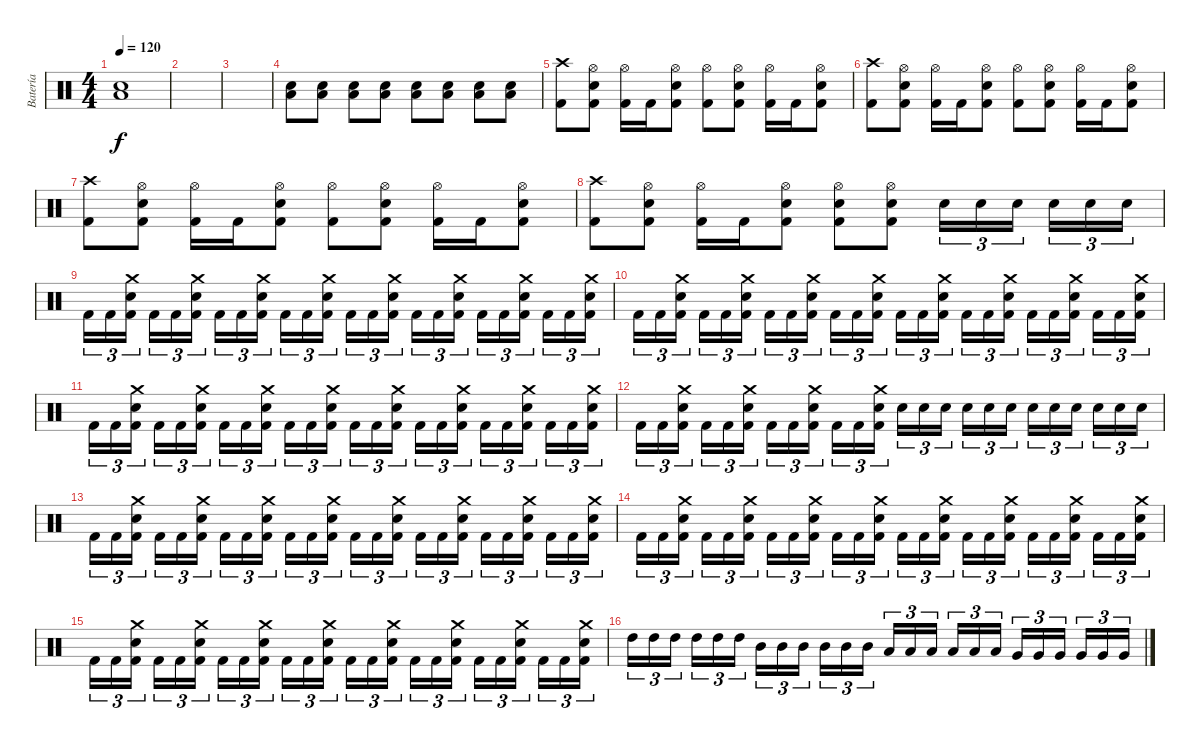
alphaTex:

\track ("Batería" "Batería") {instrument percussion}
\staff {score}
\articulation defaults
\ts (4 4)
\tempo 120
\clef neutral
\ks c
("Low Tom (hit)" "Snare (hit) 2").1{dy f} |
|
|
("Low Tom (hit)" "Snare (hit) 2").8 ("Low Tom (hit)" "Snare (hit) 2").8 ("Low Tom (hit)" "Snare (hit) 2").8 ("Low Tom (hit)" "Snare (hit) 2").8 ("Low Tom (hit)" "Snare (hit) 2").8 ("Low Tom (hit)" "Snare (hit) 2").8 ("Low Tom (hit)" "Snare (hit) 2").8 ("Low Tom (hit)" "Snare (hit) 2").8 |
("Crash high (hit)" "Kick (hit) 2").8 ("Hi-Hat (open)" "Kick (hit) 2" "Snare (hit) 2").8 ("Hi-Hat (open)" "Kick (hit) 2").16 "Kick (hit) 2".16 ("Hi-Hat (open)" "Kick (hit) 2" "Snare (hit) 2").8 ("Hi-Hat (open)" "Kick (hit) 2").8 ("Hi-Hat (open)" "Kick (hit) 2" "Snare (hit) 2").8 ("Hi-Hat (open)" "Kick (hit) 2").16 "Kick (hit) 2".16 ("Hi-Hat (open)" "Kick (hit) 2" "Snare (hit) 2").8 |
("Crash high (hit)" "Kick (hit) 2").8 ("Hi-Hat (open)" "Kick (hit) 2" "Snare (hit) 2").8 ("Hi-Hat (open)" "Kick (hit) 2").16 "Kick (hit) 2".16 ("Hi-Hat (open)" "Kick (hit) 2" "Snare (hit) 2").8 ("Hi-Hat (open)" "Kick (hit) 2").8 ("Hi-Hat (open)" "Kick (hit) 2" "Snare (hit) 2").8 ("Hi-Hat (open)" "Kick (hit) 2").16 "Kick (hit) 2".16 ("Hi-Hat (open)" "Kick (hit) 2" "Snare (hit) 2").8 |
("Crash high (hit)" "Kick (hit) 2").8 ("Hi-Hat (open)" "Kick (hit) 2" "Snare (hit) 2").8 ("Hi-Hat (open)" "Kick (hit) 2").16 "Kick (hit) 2".16 ("Hi-Hat (open)" "Kick (hit) 2" "Snare (hit) 2").8 ("Hi-Hat (open)" "Kick (hit) 2").8 ("Hi-Hat (open)" "Kick (hit) 2" "Snare (hit) 2").8 ("Hi-Hat (open)" "Kick (hit) 2").16 "Kick (hit) 2".16 ("Hi-Hat (open)" "Kick (hit) 2" "Snare (hit) 2").8 |
("Crash high (hit)" "Kick (hit) 2").8 ("Hi-Hat (open)" "Kick (hit) 2" "Snare (hit) 2").8 ("Hi-Hat (open)" "Kick (hit) 2").16 "Kick (hit) 2".16 ("Hi-Hat (open)" "Kick (hit) 2" "Snare (hit) 2").8 ("Hi-Hat (open)" "Kick (hit) 2" "Snare (hit) 2").8 ("Hi-Hat (open)" "Kick (hit) 2" "Snare (hit) 2").8 "Snare (hit) 2".16{tu (3 2)} "Snare (hit) 2".16{tu (3 2)} "Snare (hit) 2".16{tu (3 2)} "Snare (hit) 2".16{tu (3 2)} "Snare (hit) 2".16{tu (3 2)} "Snare (hit) 2".16{tu (3 2)} |
"Kick (hit) 2".16{tu (3 2)} "Kick (hit) 2".16{tu (3 2)} ("Kick (hit) 2" "Crash medium (hit)" "Snare (hit) 2").16{tu (3 2)} "Kick (hit) 2".16{tu (3 2)} "Kick (hit) 2".16{tu (3 2)} ("Kick (hit) 2" "Crash medium (hit)" "Snare (hit) 2").16{tu (3 2)} "Kick (hit) 2".16{tu (3 2)} "Kick (hit) 2".16{tu (3 2)} ("Kick (hit) 2" "Crash medium (hit)" "Snare (hit) 2").16{tu (3 2)} "Kick (hit) 2".16{tu (3 2)} "Kick (hit) 2".16{tu (3 2)} ("Kick (hit) 2" "Crash medium (hit)" "Snare (hit) 2").16{tu (3 2)} "Kick (hit) 2".16{tu (3 2)} "Kick (hit) 2".16{tu (3 2)} ("Kick (hit) 2" "Crash medium (hit)" "Snare (hit) 2").16{tu (3 2)} "Kick (hit) 2".16{tu (3 2)} "Kick (hit) 2".16{tu (3 2)} ("Kick (hit) 2" "Crash medium (hit)" "Snare (hit) 2").16{tu (3 2)} "Kick (hit) 2".16{tu (3 2)} "Kick (hit) 2".16{tu (3 2)} ("Kick (hit) 2" "Crash medium (hit)" "Snare (hit) 2").16{tu (3 2)} "Kick (hit) 2".16{tu (3 2)} "Kick (hit) 2".16{tu (3 2)} ("Kick (hit) 2" "Crash medium (hit)" "Snare (hit) 2").16{tu (3 2)} |
"Kick (hit) 2".16{tu (3 2)} "Kick (hit) 2".16{tu (3 2)} ("Kick (hit) 2" "Crash medium (hit)" "Snare (hit) 2").16{tu (3 2)} "Kick (hit) 2".16{tu (3 2)} "Kick (hit) 2".16{tu (3 2)} ("Kick (hit) 2" "Crash medium (hit)" "Snare (hit) 2").16{tu (3 2)} "Kick (hit) 2".16{tu (3 2)} "Kick (hit) 2".16{tu (3 2)} ("Kick (hit) 2" "Crash medium (hit)" "Snare (hit) 2").16{tu (3 2)} "Kick (hit) 2".16{tu (3 2)} "Kick (hit) 2".16{tu (3 2)} ("Kick (hit) 2" "Crash medium (hit)" "Snare (hit) 2").16{tu (3 2)} "Kick (hit) 2".16{tu (3 2)} "Kick (hit) 2".16{tu (3 2)} ("Kick (hit) 2" "Crash medium (hit)" "Snare (hit) 2").16{tu (3 2)} "Kick (hit) 2".16{tu (3 2)} "Kick (hit) 2".16{tu (3 2)} ("Kick (hit) 2" "Crash medium (hit)" "Snare (hit) 2").16{tu (3 2)} "Kick (hit) 2".16{tu (3 2)} "Kick (hit) 2".16{tu (3 2)} ("Kick (hit) 2" "Crash medium (hit)" "Snare (hit) 2").16{tu (3 2)} "Kick (hit) 2".16{tu (3 2)} "Kick (hit) 2".16{tu (3 2)} ("Kick (hit) 2" "Crash medium (hit)" "Snare (hit) 2").16{tu (3 2)} |
"Kick (hit) 2".16{tu (3 2)} "Kick (hit) 2".16{tu (3 2)} ("Kick (hit) 2" "Crash medium (hit)" "Snare (hit) 2").16{tu (3 2)} "Kick (hit) 2".16{tu (3 2)} "Kick (hit) 2".16{tu (3 2)} ("Kick (hit) 2" "Crash medium (hit)" "Snare (hit) 2").16{tu (3 2)} "Kick (hit) 2".16{tu (3 2)} "Kick (hit) 2".16{tu (3 2)} ("Kick (hit) 2" "Crash medium (hit)" "Snare (hit) 2").16{tu (3 2)} "Kick (hit) 2".16{tu (3 2)} "Kick (hit) 2".16{tu (3 2)} ("Kick (hit) 2" "Crash medium (hit)" "Snare (hit) 2").16{tu (3 2)} "Kick (hit) 2".16{tu (3 2)} "Kick (hit) 2".16{tu (3 2)} ("Kick (hit) 2" "Crash medium (hit)" "Snare (hit) 2").16{tu (3 2)} "Kick (hit) 2".16{tu (3 2)} "Kick (hit) 2".16{tu (3 2)} ("Kick (hit) 2" "Crash medium (hit)" "Snare (hit) 2").16{tu (3 2)} "Kick (hit) 2".16{tu (3 2)} "Kick (hit) 2".16{tu (3 2)} ("Kick (hit) 2" "Crash medium (hit)" "Snare (hit) 2").16{tu (3 2)} "Kick (hit) 2".16{tu (3 2)} "Kick (hit) 2".16{tu (3 2)} ("Kick (hit) 2" "Crash medium (hit)" "Snare (hit) 2").16{tu (3 2)} |
"Kick (hit) 2".16{tu (3 2)} "Kick (hit) 2".16{tu (3 2)} ("Kick (hit) 2" "Crash medium (hit)" "Snare (hit) 2").16{tu (3 2)} "Kick (hit) 2".16{tu (3 2)} "Kick (hit) 2".16{tu (3 2)} ("Kick (hit) 2" "Crash medium (hit)" "Snare (hit) 2").16{tu (3 2)} "Kick (hit) 2".16{tu (3 2)} "Kick (hit) 2".16{tu (3 2)} ("Kick (hit) 2" "Crash medium (hit)" "Snare (hit) 2").16{tu (3 2)} "Kick (hit) 2".16{tu (3 2)} "Kick (hit) 2".16{tu (3 2)} ("Kick (hit) 2" "Crash medium (hit)" "Snare (hit) 2").16{tu (3 2)} "Snare (hit) 2".16{tu (3 2)} "Snare (hit) 2".16{tu (3 2)} "Snare (hit) 2".16{tu (3 2)} "Snare (hit) 2".16{tu (3 2)} "Snare (hit) 2".16{tu (3 2)} "Snare (hit) 2".16{tu (3 2)} "Snare (hit) 2".16{tu (3 2)} "Snare (hit) 2".16{tu (3 2)} "Snare (hit) 2".16{tu (3 2)} "Snare (hit) 2".16{tu (3 2)} "Snare (hit) 2".16{tu (3 2)} "Snare (hit) 2".16{tu (3 2)} |
"Kick (hit) 2".16{tu (3 2)} "Kick (hit) 2".16{tu (3 2)} ("Kick (hit) 2" "Crash medium (hit)" "Snare (hit) 2").16{tu (3 2)} "Kick (hit) 2".16{tu (3 2)} "Kick (hit) 2".16{tu (3 2)} ("Kick (hit) 2" "Crash medium (hit)" "Snare (hit) 2").16{tu (3 2)} "Kick (hit) 2".16{tu (3 2)} "Kick (hit) 2".16{tu (3 2)} ("Kick (hit) 2" "Crash medium (hit)" "Snare (hit) 2").16{tu (3 2)} "Kick (hit) 2".16{tu (3 2)} "Kick (hit) 2".16{tu (3 2)} ("Kick (hit) 2" "Crash medium (hit)" "Snare (hit) 2").16{tu (3 2)} "Kick (hit) 2".16{tu (3 2)} "Kick (hit) 2".16{tu (3 2)} ("Kick (hit) 2" "Crash medium (hit)" "Snare (hit) 2").16{tu (3 2)} "Kick (hit) 2".16{tu (3 2)} "Kick (hit) 2".16{tu (3 2)} ("Kick (hit) 2" "Crash medium (hit)" "Snare (hit) 2").16{tu (3 2)} "Kick (hit) 2".16{tu (3 2)} "Kick (hit) 2".16{tu (3 2)} ("Kick (hit) 2" "Crash medium (hit)" "Snare (hit) 2").16{tu (3 2)} "Kick (hit) 2".16{tu (3 2)} "Kick (hit) 2".16{tu (3 2)} ("Kick (hit) 2" "Crash medium (hit)" "Snare (hit) 2").16{tu (3 2)} |
"Kick (hit) 2".16{tu (3 2)} "Kick (hit) 2".16{tu (3 2)} ("Kick (hit) 2" "Crash medium (hit)" "Snare (hit) 2").16{tu (3 2)} "Kick (hit) 2".16{tu (3 2)} "Kick (hit) 2".16{tu (3 2)} ("Kick (hit) 2" "Crash medium (hit)" "Snare (hit) 2").16{tu (3 2)} "Kick (hit) 2".16{tu (3 2)} "Kick (hit) 2".16{tu (3 2)} ("Kick (hit) 2" "Crash medium (hit)" "Snare (hit) 2").16{tu (3 2)} "Kick (hit) 2".16{tu (3 2)} "Kick (hit) 2".16{tu (3 2)} ("Kick (hit) 2" "Crash medium (hit)" "Snare (hit) 2").16{tu (3 2)} "Kick (hit) 2".16{tu (3 2)} "Kick (hit) 2".16{tu (3 2)} ("Kick (hit) 2" "Crash medium (hit)" "Snare (hit) 2").16{tu (3 2)} "Kick (hit) 2".16{tu (3 2)} "Kick (hit) 2".16{tu (3 2)} ("Kick (hit) 2" "Crash medium (hit)" "Snare (hit) 2").16{tu (3 2)} "Kick (hit) 2".16{tu (3 2)} "Kick (hit) 2".16{tu (3 2)} ("Kick (hit) 2" "Crash medium (hit)" "Snare (hit) 2").16{tu (3 2)} "Kick (hit) 2".16{tu (3 2)} "Kick (hit) 2".16{tu (3 2)} ("Kick (hit) 2" "Crash medium (hit)" "Snare (hit) 2").16{tu (3 2)} |
"Kick (hit) 2".16{tu (3 2)} "Kick (hit) 2".16{tu (3 2)} ("Kick (hit) 2" "Crash medium (hit)" "Snare (hit) 2").16{tu (3 2)} "Kick (hit) 2".16{tu (3 2)} "Kick (hit) 2".16{tu (3 2)} ("Kick (hit) 2" "Crash medium (hit)" "Snare (hit) 2").16{tu (3 2)} "Kick (hit) 2".16{tu (3 2)} "Kick (hit) 2".16{tu (3 2)} ("Kick (hit) 2" "Crash medium (hit)" "Snare (hit) 2").16{tu (3 2)} "Kick (hit) 2".16{tu (3 2)} "Kick (hit) 2".16{tu (3 2)} ("Kick (hit) 2" "Crash medium (hit)" "Snare (hit) 2").16{tu (3 2)} "Kick (hit) 2".16{tu (3 2)} "Kick (hit) 2".16{tu (3 2)} ("Kick (hit) 2" "Crash medium (hit)" "Snare (hit) 2").16{tu (3 2)} "Kick (hit) 2".16{tu (3 2)} "Kick (hit) 2".16{tu (3 2)} ("Kick (hit) 2" "Crash medium (hit)" "Snare (hit) 2").16{tu (3 2)} "Kick (hit) 2".16{tu (3 2)} "Kick (hit) 2".16{tu (3 2)} ("Kick (hit) 2" "Crash medium (hit)" "Snare (hit) 2").16{tu (3 2)} "Kick (hit) 2".16{tu (3 2)} "Kick (hit) 2".16{tu (3 2)} ("Kick (hit) 2" "Crash medium (hit)" "Snare (hit) 2").16{tu (3 2)} |
"High Tom (hit)".16{tu (3 2)} "High Tom (hit)".16{tu (3 2)} "High Tom (hit)".16{tu (3 2)} "High Tom (hit)".16{tu (3 2)} "High Tom (hit)".16{tu (3 2)} "High Tom (hit)".16{tu (3 2)} "Mid Tom (hit)".16{tu (3 2)} "Mid Tom (hit)".16{tu (3 2)} "Mid Tom (hit)".16{tu (3 2)} "Mid Tom (hit)".16{tu (3 2)} "Mid Tom (hit)".16{tu (3 2)} "Mid Tom (hit)".16{tu (3 2)} "Low Tom (hit)".16{tu (3 2)} "Low Tom (hit)".16{tu (3 2)} "Low Tom (hit)".16{tu (3 2)} "Low Tom (hit)".16{tu (3 2)} "Low Tom (hit)".16{tu (3 2)} "Low Tom (hit)".16{tu (3 2)} "Very Low Tom (hit)".16{tu (3 2)} "Very Low Tom (hit)".16{tu (3 2)} "Very Low Tom (hit)".16{tu (3 2)} "Very Low Tom (hit)".16{tu (3 2)} "Very Low Tom (hit)".16{tu (3 2)} "Very Low Tom (hit)".16{tu (3 2)}
